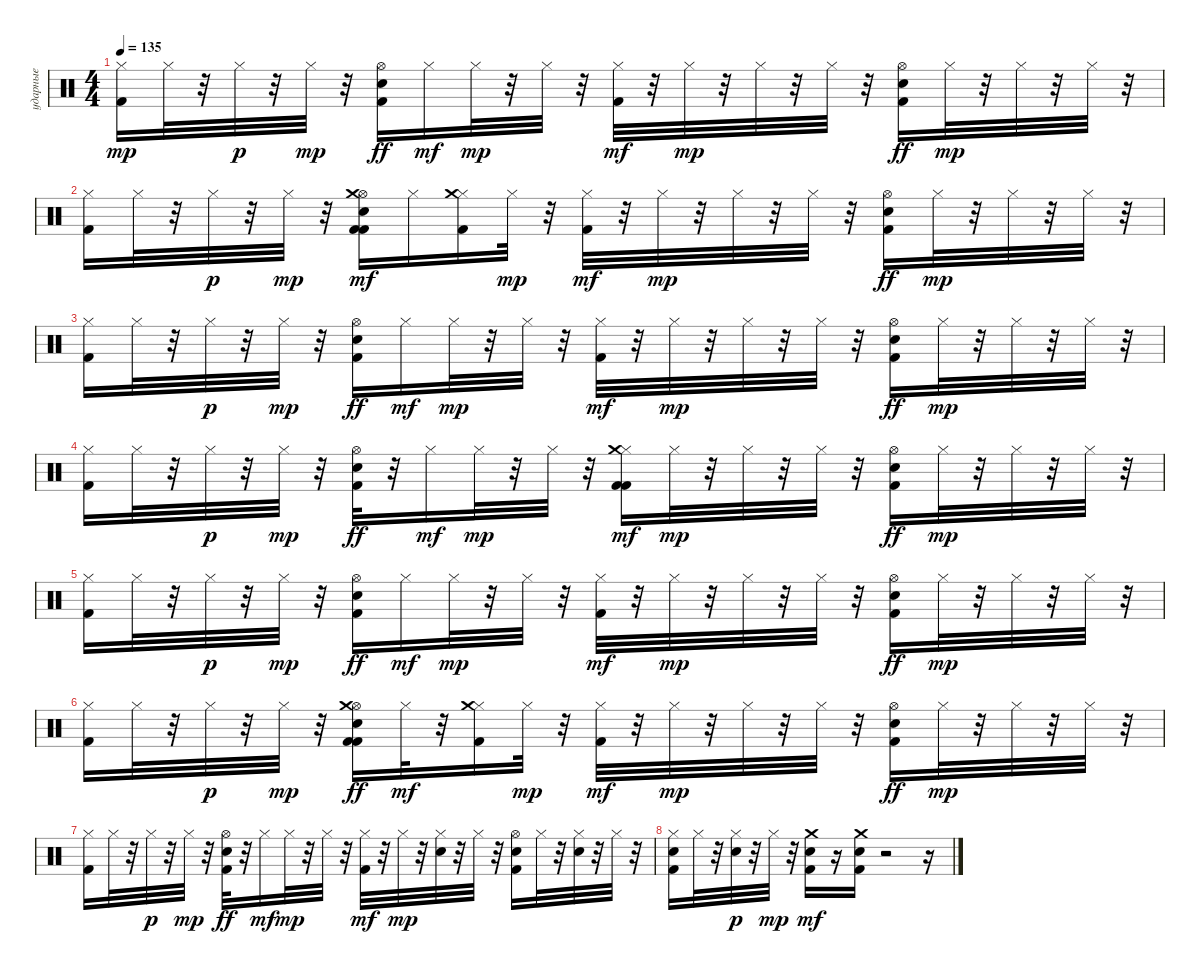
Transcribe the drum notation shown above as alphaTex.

\track ("ударные" "ударные") {instrument percussion}
\staff {score}
\articulation defaults
\ts (4 4)
\tempo 135
\clef neutral
\ks c
("Kick (hit) 2" "Hi-Hat (closed)").16{dy mp} "Hi-Hat (closed)".32 r.32 "Hi-Hat (closed)".32{dy p} r.32 "Hi-Hat (closed)".32{dy mp} r.32 ("Kick (hit) 2" "Snare (hit) 2" "Hi-Hat (open)").16{dy ff} "Hi-Hat (closed)".16{dy mf} "Hi-Hat (closed)".32{dy mp} r.32 "Hi-Hat (closed)".32 r.32 ("Kick (hit) 2" "Hi-Hat (closed)").32{dy mf} r.32 "Hi-Hat (closed)".32{dy mp} r.32 "Hi-Hat (closed)".32 r.32 "Hi-Hat (closed)".32 r.32 ("Kick (hit) 2" "Snare (hit) 2" "Hi-Hat (open)").16{dy ff} "Hi-Hat (closed)".32{dy mp} r.32 "Hi-Hat (closed)".32 r.32 "Hi-Hat (closed)".32 r.32 |
("Kick (hit) 2" "Hi-Hat (closed)").16 "Hi-Hat (closed)".32 r.32 "Hi-Hat (closed)".32{dy p} r.32 "Hi-Hat (closed)".32{dy mp} r.32 ("Kick (hit) 2" "Kick (hit) 2" "Hi-Hat (open)" "Snare (hit) 2" "Crash medium (hit)").16{dy mf} "Hi-Hat (closed)".16 ("Kick (hit) 2" "Hi-Hat (closed)" "Crash medium (hit)").16 "Hi-Hat (closed)".32{dy mp} r.32 ("Kick (hit) 2" "Hi-Hat (closed)").32{dy mf} r.32 "Hi-Hat (closed)".32{dy mp} r.32 "Hi-Hat (closed)".32 r.32 "Hi-Hat (closed)".32 r.32 ("Kick (hit) 2" "Snare (hit) 2" "Hi-Hat (open)").16{dy ff} "Hi-Hat (closed)".32{dy mp} r.32 "Hi-Hat (closed)".32 r.32 "Hi-Hat (closed)".32 r.32 |
("Kick (hit) 2" "Hi-Hat (closed)").16 "Hi-Hat (closed)".32 r.32 "Hi-Hat (closed)".32{dy p} r.32 "Hi-Hat (closed)".32{dy mp} r.32 ("Kick (hit) 2" "Snare (hit) 2" "Hi-Hat (open)").16{dy ff} "Hi-Hat (closed)".16{dy mf} "Hi-Hat (closed)".32{dy mp} r.32 "Hi-Hat (closed)".32 r.32 ("Kick (hit) 2" "Hi-Hat (closed)").32{dy mf} r.32 "Hi-Hat (closed)".32{dy mp} r.32 "Hi-Hat (closed)".32 r.32 "Hi-Hat (closed)".32 r.32 ("Kick (hit) 2" "Snare (hit) 2" "Hi-Hat (open)").16{dy ff} "Hi-Hat (closed)".32{dy mp} r.32 "Hi-Hat (closed)".32 r.32 "Hi-Hat (closed)".32 r.32 |
("Kick (hit) 2" "Hi-Hat (closed)").16 "Hi-Hat (closed)".32 r.32 "Hi-Hat (closed)".32{dy p} r.32 "Hi-Hat (closed)".32{dy mp} r.32 ("Kick (hit) 2" "Snare (hit) 2" "Hi-Hat (open)").32{dy ff} r.32 "Hi-Hat (closed)".16{dy mf} "Hi-Hat (closed)".32{dy mp} r.32 "Hi-Hat (closed)".32 r.32 ("Kick (hit) 2" "Kick (hit) 2" "Hi-Hat (closed)" "Crash medium (hit)").16{dy mf} "Hi-Hat (closed)".32{dy mp} r.32 "Hi-Hat (closed)".32 r.32 "Hi-Hat (closed)".32 r.32 ("Kick (hit) 2" "Snare (hit) 2" "Hi-Hat (open)").16{dy ff} "Hi-Hat (closed)".32{dy mp} r.32 "Hi-Hat (closed)".32 r.32 "Hi-Hat (closed)".32 r.32 |
("Kick (hit) 2" "Hi-Hat (closed)").16 "Hi-Hat (closed)".32 r.32 "Hi-Hat (closed)".32{dy p} r.32 "Hi-Hat (closed)".32{dy mp} r.32 ("Kick (hit) 2" "Snare (hit) 2" "Hi-Hat (open)").16{dy ff} "Hi-Hat (closed)".16{dy mf} "Hi-Hat (closed)".32{dy mp} r.32 "Hi-Hat (closed)".32 r.32 ("Kick (hit) 2" "Hi-Hat (closed)").32{dy mf} r.32 "Hi-Hat (closed)".32{dy mp} r.32 "Hi-Hat (closed)".32 r.32 "Hi-Hat (closed)".32 r.32 ("Kick (hit) 2" "Snare (hit) 2" "Hi-Hat (open)").16{dy ff} "Hi-Hat (closed)".32{dy mp} r.32 "Hi-Hat (closed)".32 r.32 "Hi-Hat (closed)".32 r.32 |
("Kick (hit) 2" "Hi-Hat (closed)").16 "Hi-Hat (closed)".32 r.32 "Hi-Hat (closed)".32{dy p} r.32 "Hi-Hat (closed)".32{dy mp} r.32 ("Kick (hit) 2" "Kick (hit) 2" "Hi-Hat (open)" "Crash medium (hit)" "Snare (hit) 2").16{dy ff} "Hi-Hat (closed)".32{dy mf} r.32 ("Kick (hit) 2" "Hi-Hat (closed)" "Crash medium (hit)").16 "Hi-Hat (closed)".32{dy mp} r.32 ("Kick (hit) 2" "Hi-Hat (closed)").32{dy mf} r.32 "Hi-Hat (closed)".32{dy mp} r.32 "Hi-Hat (closed)".32 r.32 "Hi-Hat (closed)".32 r.32 ("Kick (hit) 2" "Snare (hit) 2" "Hi-Hat (open)").16{dy ff} "Hi-Hat (closed)".32{dy mp} r.32 "Hi-Hat (closed)".32 r.32 "Hi-Hat (closed)".32 r.32 |
("Kick (hit) 2" "Hi-Hat (closed)").16 "Hi-Hat (closed)".32 r.32 "Hi-Hat (closed)".32{dy p} r.32 "Hi-Hat (closed)".32{dy mp} r.32 ("Kick (hit) 2" "Snare (hit) 2" "Hi-Hat (open)").32{dy ff} r.32 "Hi-Hat (closed)".16{dy mf} "Hi-Hat (closed)".32{dy mp} r.32 "Hi-Hat (closed)".32 r.32 ("Kick (hit) 2" "Hi-Hat (closed)").32{dy mf} r.32 "Hi-Hat (closed)".32{dy mp} r.32 ("Snare (hit) 2" "Hi-Hat (closed)").32 r.32 "Hi-Hat (closed)".32 r.32 ("Kick (hit) 2" "Snare (hit) 2" "Hi-Hat (open)").16 "Hi-Hat (closed)".32 r.32 ("Snare (hit) 2" "Hi-Hat (closed)").32 r.32 "Hi-Hat (closed)".32 r.32 |
("Kick (hit) 2" "Snare (hit) 2" "Hi-Hat (closed)").16 "Hi-Hat (closed)".32 r.32 ("Snare (hit) 2" "Hi-Hat (closed)").32{dy p} r.32 "Hi-Hat (closed)".32{dy mp} r.32 ("Kick (hit) 2" "Snare (hit) 2" "Crash medium (hit)").16{dy mf} r.16 ("Kick (hit) 2" "Snare (hit) 2" "Crash medium (hit)").16 r.2 r.16
